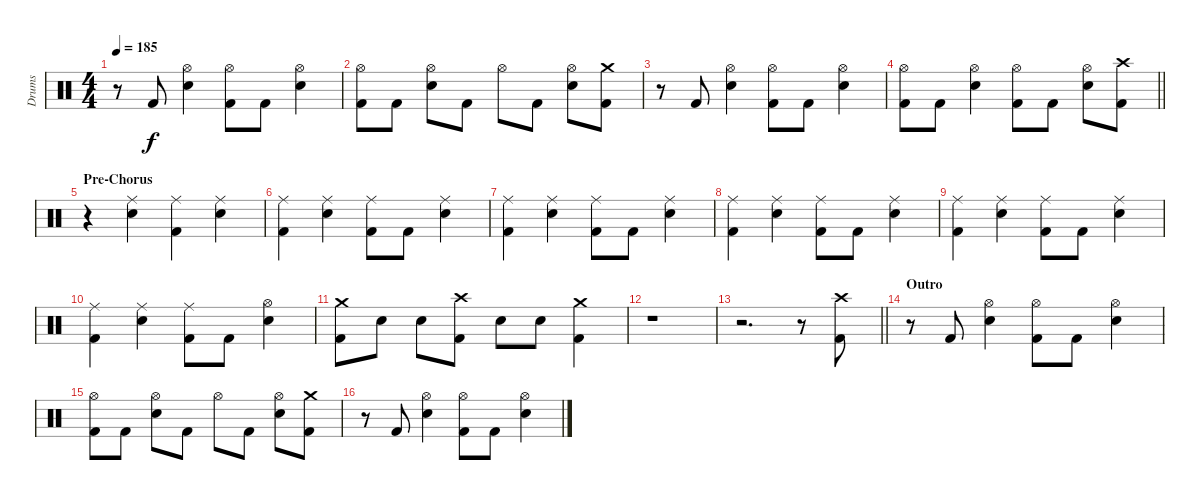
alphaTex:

\track ("Drums" "Drums") {instrument percussion}
\staff {score}
\articulation defaults
\ts (4 4)
\tempo 185
\clef neutral
\ks c
r.8{dy f} "Kick (hit) 2".8 ("Hi-Hat (open)" "Snare (hit) 2").4 ("Hi-Hat (open)" "Kick (hit) 2").8 "Kick (hit) 2".8 ("Hi-Hat (open)" "Snare (hit) 2").4 |
("Hi-Hat (open)" "Kick (hit) 2").8 "Kick (hit) 2".8 ("Hi-Hat (open)" "Snare (hit) 2").8 "Kick (hit) 2".8 "Hi-Hat (open)".8 "Kick (hit) 2".8 ("Hi-Hat (open)" "Snare (hit) 2").8 ("Crash medium (hit)" "Kick (hit) 2").8 |
r.8 "Kick (hit) 2".8 ("Hi-Hat (open)" "Snare (hit) 2").4 ("Hi-Hat (open)" "Kick (hit) 2").8 "Kick (hit) 2".8 ("Hi-Hat (open)" "Snare (hit) 2").4 |
\barLineRight lightlight
("Hi-Hat (open)" "Kick (hit) 2").8 "Kick (hit) 2".8 ("Hi-Hat (open)" "Snare (hit) 2").4 ("Hi-Hat (open)" "Kick (hit) 2").8 "Kick (hit) 2".8 ("Hi-Hat (open)" "Snare (hit) 2").8 ("Crash high (hit)" "Kick (hit) 2").8 |
\section ("" "Pre-Chorus")
r.4 ("Ride (middle)" "Snare (hit) 2").4 ("Ride (middle)" "Kick (hit) 2").4 ("Ride (middle)" "Snare (hit) 2").4 |
("Ride (middle)" "Kick (hit) 2").4 ("Ride (middle)" "Snare (hit) 2").4 ("Ride (middle)" "Kick (hit) 2").8 "Kick (hit) 2".8 ("Ride (middle)" "Snare (hit) 2").4 |
("Ride (middle)" "Kick (hit) 2").4 ("Ride (middle)" "Snare (hit) 2").4 ("Ride (middle)" "Kick (hit) 2").8 "Kick (hit) 2".8 ("Ride (middle)" "Snare (hit) 2").4 |
("Ride (middle)" "Kick (hit) 2").4 ("Ride (middle)" "Snare (hit) 2").4 ("Ride (middle)" "Kick (hit) 2").8 "Kick (hit) 2".8 ("Ride (middle)" "Snare (hit) 2").4 |
("Ride (middle)" "Kick (hit) 2").4 ("Ride (middle)" "Snare (hit) 2").4 ("Ride (middle)" "Kick (hit) 2").8 "Kick (hit) 2".8 ("Ride (middle)" "Snare (hit) 2").4 |
("Ride (middle)" "Kick (hit) 2").4 ("Ride (middle)" "Snare (hit) 2").4 ("Ride (middle)" "Kick (hit) 2").8 "Kick (hit) 2".8 ("Hi-Hat (open)" "Snare (hit) 2").4 |
("Crash medium (hit)" "Kick (hit) 2").8 "Snare (hit) 2".8 "Snare (hit) 2".8 ("Crash high (hit)" "Kick (hit) 2").8 "Snare (hit) 2".8 "Snare (hit) 2".8 ("Crash medium (hit)" "Kick (hit) 2").4 |
r.1 |
\barLineRight lightlight
r.2{d} r.8 ("Crash high (hit)" "Kick (hit) 2").8 |
\section ("" "Outro")
r.8 "Kick (hit) 2".8 ("Hi-Hat (open)" "Snare (hit) 2").4 ("Hi-Hat (open)" "Kick (hit) 2").8 "Kick (hit) 2".8 ("Hi-Hat (open)" "Snare (hit) 2").4 |
("Hi-Hat (open)" "Kick (hit) 2").8 "Kick (hit) 2".8 ("Hi-Hat (open)" "Snare (hit) 2").8 "Kick (hit) 2".8 "Hi-Hat (open)".8 "Kick (hit) 2".8 ("Hi-Hat (open)" "Snare (hit) 2").8 ("Crash medium (hit)" "Kick (hit) 2").8 |
r.8 "Kick (hit) 2".8 ("Hi-Hat (open)" "Snare (hit) 2").4 ("Hi-Hat (open)" "Kick (hit) 2").8 "Kick (hit) 2".8 ("Hi-Hat (open)" "Snare (hit) 2").4
